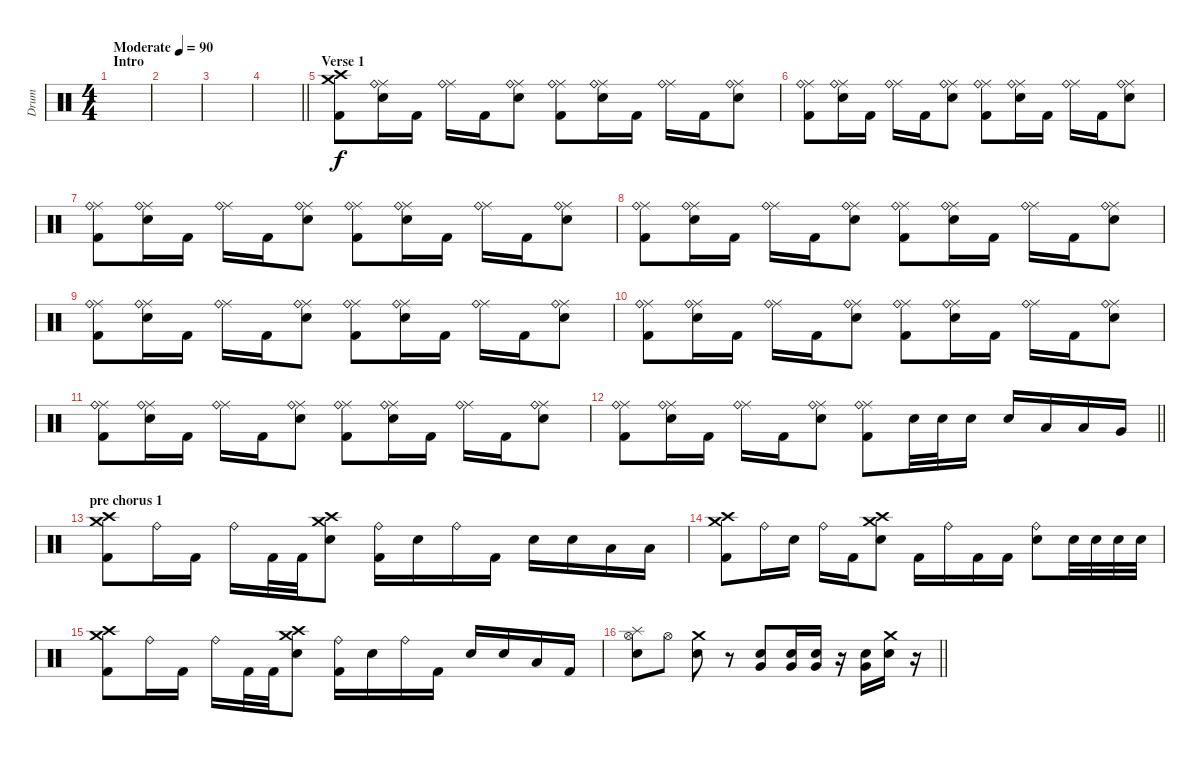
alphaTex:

\track ("Drum" "Drum") {instrument percussion}
\staff {score}
\articulation defaults
\ts (4 4)
\section ("" "Intro")
\tempo (90 "Moderate")
\clef neutral
\ks c
|
|
|
\barLineRight lightlight
|
\section ("" "Verse 1")
("Crash medium (hit)" "Crash high (hit)" "Kick (hit) 2").8 ("Ride (middle)" "Ride (bell)" "Snare (hit) 2").16 "Kick (hit) 2".16 ("Ride (middle)" "Ride (bell)").16 "Kick (hit) 2".16 ("Ride (middle)" "Ride (bell)" "Snare (hit) 2").8 ("Ride (middle)" "Ride (bell)" "Kick (hit) 2").8 ("Ride (middle)" "Ride (bell)" "Snare (hit) 2").16 "Kick (hit) 2".16 ("Ride (middle)" "Ride (bell)").16 "Kick (hit) 2".16 ("Ride (middle)" "Ride (bell)" "Snare (hit) 2").8 |
("Ride (middle)" "Ride (bell)" "Kick (hit) 2").8 ("Ride (middle)" "Ride (bell)" "Snare (hit) 2").16 "Kick (hit) 2".16 ("Ride (middle)" "Ride (bell)").16 "Kick (hit) 2".16 ("Ride (middle)" "Ride (bell)" "Snare (hit) 2").8 ("Ride (middle)" "Ride (bell)" "Kick (hit) 2").8 ("Ride (middle)" "Ride (bell)" "Snare (hit) 2").16 "Kick (hit) 2".16 ("Ride (middle)" "Ride (bell)").16 "Kick (hit) 2".16 ("Ride (middle)" "Ride (bell)" "Snare (hit) 2").8 |
("Ride (middle)" "Ride (bell)" "Kick (hit) 2").8 ("Ride (middle)" "Ride (bell)" "Snare (hit) 2").16 "Kick (hit) 2".16 ("Ride (middle)" "Ride (bell)").16 "Kick (hit) 2".16 ("Ride (middle)" "Ride (bell)" "Snare (hit) 2").8 ("Ride (middle)" "Ride (bell)" "Kick (hit) 2").8 ("Ride (middle)" "Ride (bell)" "Snare (hit) 2").16 "Kick (hit) 2".16 ("Ride (middle)" "Ride (bell)").16 "Kick (hit) 2".16 ("Ride (middle)" "Ride (bell)" "Snare (hit) 2").8 |
("Ride (middle)" "Ride (bell)" "Kick (hit) 2").8 ("Ride (middle)" "Ride (bell)" "Snare (hit) 2").16 "Kick (hit) 2".16 ("Ride (middle)" "Ride (bell)").16 "Kick (hit) 2".16 ("Ride (middle)" "Ride (bell)" "Snare (hit) 2").8 ("Ride (middle)" "Ride (bell)" "Kick (hit) 2").8 ("Ride (middle)" "Ride (bell)" "Snare (hit) 2").16 "Kick (hit) 2".16 ("Ride (middle)" "Ride (bell)").16 "Kick (hit) 2".16 ("Ride (middle)" "Ride (bell)" "Snare (hit) 2").8 |
("Ride (middle)" "Ride (bell)" "Kick (hit) 2").8 ("Ride (middle)" "Ride (bell)" "Snare (hit) 2").16 "Kick (hit) 2".16 ("Ride (middle)" "Ride (bell)").16 "Kick (hit) 2".16 ("Ride (middle)" "Ride (bell)" "Snare (hit) 2").8 ("Ride (middle)" "Ride (bell)" "Kick (hit) 2").8 ("Ride (middle)" "Ride (bell)" "Snare (hit) 2").16 "Kick (hit) 2".16 ("Ride (middle)" "Ride (bell)").16 "Kick (hit) 2".16 ("Ride (middle)" "Ride (bell)" "Snare (hit) 2").8 |
("Ride (middle)" "Ride (bell)" "Kick (hit) 2").8 ("Ride (middle)" "Ride (bell)" "Snare (hit) 2").16 "Kick (hit) 2".16 ("Ride (middle)" "Ride (bell)").16 "Kick (hit) 2".16 ("Ride (middle)" "Ride (bell)" "Snare (hit) 2").8 ("Ride (middle)" "Ride (bell)" "Kick (hit) 2").8 ("Ride (middle)" "Ride (bell)" "Snare (hit) 2").16 "Kick (hit) 2".16 ("Ride (middle)" "Ride (bell)").16 "Kick (hit) 2".16 ("Ride (middle)" "Ride (bell)" "Snare (hit) 2").8 |
("Ride (middle)" "Ride (bell)" "Kick (hit) 2").8 ("Ride (middle)" "Ride (bell)" "Snare (hit) 2").16 "Kick (hit) 2".16 ("Ride (middle)" "Ride (bell)").16 "Kick (hit) 2".16 ("Ride (middle)" "Ride (bell)" "Snare (hit) 2").8 ("Ride (middle)" "Ride (bell)" "Kick (hit) 2").8 ("Ride (middle)" "Ride (bell)" "Snare (hit) 2").16 "Kick (hit) 2".16 ("Ride (middle)" "Ride (bell)").16 "Kick (hit) 2".16 ("Ride (middle)" "Ride (bell)" "Snare (hit) 2").8 |
\barLineRight lightlight
("Ride (middle)" "Ride (bell)" "Kick (hit) 2").8 ("Ride (middle)" "Ride (bell)" "Snare (hit) 2").16 "Kick (hit) 2".16 ("Ride (middle)" "Ride (bell)").16 "Kick (hit) 2".16 ("Ride (middle)" "Ride (bell)" "Snare (hit) 2").8 ("Ride (middle)" "Ride (bell)" "Kick (hit) 2").8 "Snare (hit) 2".32 "Snare (hit) 2".32 "Snare (hit) 2".16 "Snare (hit) 2".16 "Low Tom (hit)".16 "Low Tom (hit)".16 "Very Low Tom (hit)".16 |
\section ("" "pre chorus 1")
("Crash medium (hit)" "Crash high (hit)" "Kick (hit) 2").8 "Ride (bell)".16 "Kick (hit) 2".16 "Ride (bell)".16 "Kick (hit) 2".32 "Kick (hit) 2".32 ("Crash medium (hit)" "Crash high (hit)" "Snare (hit) 2").8 ("Ride (bell)" "Kick (hit) 2").16 "Snare (hit) 2".16 "Ride (bell)".16 "Kick (hit) 2".16 "Snare (hit) 2".16 "Snare (hit) 2".16 "Low Tom (hit)".16 "Low Tom (hit)".16 |
("Crash high (hit)" "Crash medium (hit)" "Kick (hit) 2").8 "Ride (bell)".16 "Snare (hit) 2".16 "Ride (bell)".16 "Kick (hit) 2".16 ("Crash medium (hit)" "Crash high (hit)" "Snare (hit) 2").8 "Kick (hit) 2".16 "Ride (bell)".16 "Kick (hit) 2".16 "Kick (hit) 2".16 ("Ride (bell)" "Snare (hit) 2").8 "Snare (hit) 2".32 "Snare (hit) 2".32 "Snare (hit) 2".32 "Snare (hit) 2".32 |
("Crash high (hit)" "Crash medium (hit)" "Kick (hit) 2").8 "Ride (bell)".16 "Kick (hit) 2".16 "Ride (bell)".16 "Kick (hit) 2".32 "Kick (hit) 2".32 ("Crash medium (hit)" "Crash high (hit)" "Snare (hit) 2").8 ("Ride (bell)" "Kick (hit) 2").16 "Snare (hit) 2".16 "Ride (bell)".16 "Kick (hit) 2".16 "Snare (hit) 2".16 "Snare (hit) 2".16 "Low Tom (hit)".16 "Kick (hit) 2".16 |
\barLineRight lightlight
("Hi-Hat (open)" "Splash (hit)" "Snare (hit) 2").8 "Hi-Hat (open)".8 ("Crash medium (hit)" "Snare (hit) 2").8 r.8 ("Very Low Tom (hit)" "Snare (hit) 2").8 ("Very Low Tom (hit)" "Snare (hit) 2").16 ("Very Low Tom (hit)" "Snare (hit) 2").16 r.16 ("Very Low Tom (hit)" "Snare (hit) 2").16 ("Crash medium (hit)" "Snare (hit) 2").16 r.16
